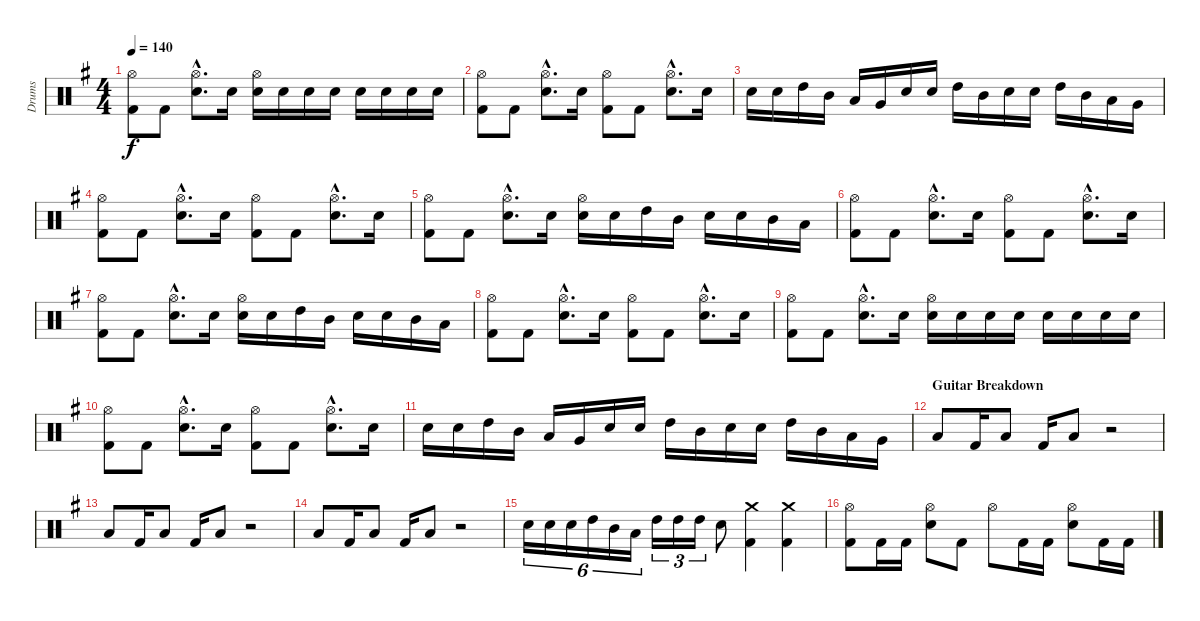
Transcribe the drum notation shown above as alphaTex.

\track ("Drums" "Drums") {instrument percussion}
\staff {score}
\articulation defaults
\ts (4 4)
\tempo 140
\clef neutral
\ks g
("Hi-Hat (open)" "Kick (hit) 2").8{dy f} "Kick (hit) 2".8 ("Hi-Hat (open)"{hac} "Electric Snare (hit)"{hac}).8{d} "Electric Snare (hit)".16 ("Hi-Hat (open)" "Electric Snare (hit)").16 "Electric Snare (hit)".16 "Electric Snare (hit)".16 "Electric Snare (hit)".16 "Electric Snare (hit)".16 "Electric Snare (hit)".16 "Electric Snare (hit)".16 "Electric Snare (hit)".16 |
("Hi-Hat (open)" "Kick (hit) 2").8 "Kick (hit) 2".8 ("Hi-Hat (open)"{hac} "Electric Snare (hit)"{hac}).8{d} "Electric Snare (hit)".16 ("Hi-Hat (open)" "Kick (hit) 2").8 "Kick (hit) 2".8 ("Hi-Hat (open)"{hac} "Electric Snare (hit)"{hac}).8{d} "Electric Snare (hit)".16 |
"Electric Snare (hit)".16 "Electric Snare (hit)".16 "High Tom (hit)".16 "Mid Tom (hit)".16 "Low Tom (hit)".16 "Very Low Tom (hit)".16 "Electric Snare (hit)".16 "Electric Snare (hit)".16 "High Tom (hit)".16 "Mid Tom (hit)".16 "Electric Snare (hit)".16 "Electric Snare (hit)".16 "High Tom (hit)".16 "Mid Tom (hit)".16 "Low Tom (hit)".16 "Very Low Tom (hit)".16 |
("Hi-Hat (open)" "Kick (hit) 2").8 "Kick (hit) 2".8 ("Hi-Hat (open)"{hac} "Electric Snare (hit)"{hac}).8{d} "Electric Snare (hit)".16 ("Hi-Hat (open)" "Kick (hit) 2").8 "Kick (hit) 2".8 ("Hi-Hat (open)"{hac} "Electric Snare (hit)"{hac}).8{d} "Electric Snare (hit)".16 |
("Hi-Hat (open)" "Kick (hit) 2").8 "Kick (hit) 2".8 ("Hi-Hat (open)"{hac} "Electric Snare (hit)"{hac}).8{d} "Electric Snare (hit)".16 ("Hi-Hat (open)" "Electric Snare (hit)").16 "Electric Snare (hit)".16 "High Tom (hit)".16 "Mid Tom (hit)".16 "Electric Snare (hit)".16 "Electric Snare (hit)".16 "Mid Tom (hit)".16 "Low Tom (hit)".16 |
("Hi-Hat (open)" "Kick (hit) 2").8 "Kick (hit) 2".8 ("Hi-Hat (open)"{hac} "Electric Snare (hit)"{hac}).8{d} "Electric Snare (hit)".16 ("Hi-Hat (open)" "Kick (hit) 2").8 "Kick (hit) 2".8 ("Hi-Hat (open)"{hac} "Electric Snare (hit)"{hac}).8{d} "Electric Snare (hit)".16 |
("Hi-Hat (open)" "Kick (hit) 2").8 "Kick (hit) 2".8 ("Hi-Hat (open)"{hac} "Electric Snare (hit)"{hac}).8{d} "Electric Snare (hit)".16 ("Hi-Hat (open)" "Electric Snare (hit)").16 "Electric Snare (hit)".16 "High Tom (hit)".16 "Mid Tom (hit)".16 "Electric Snare (hit)".16 "Electric Snare (hit)".16 "Mid Tom (hit)".16 "Low Tom (hit)".16 |
("Hi-Hat (open)" "Kick (hit) 2").8 "Kick (hit) 2".8 ("Hi-Hat (open)"{hac} "Electric Snare (hit)"{hac}).8{d} "Electric Snare (hit)".16 ("Hi-Hat (open)" "Kick (hit) 2").8 "Kick (hit) 2".8 ("Hi-Hat (open)"{hac} "Electric Snare (hit)"{hac}).8{d} "Electric Snare (hit)".16 |
("Hi-Hat (open)" "Kick (hit) 2").8 "Kick (hit) 2".8 ("Hi-Hat (open)"{hac} "Electric Snare (hit)"{hac}).8{d} "Electric Snare (hit)".16 ("Hi-Hat (open)" "Electric Snare (hit)").16 "Electric Snare (hit)".16 "Electric Snare (hit)".16 "Electric Snare (hit)".16 "Electric Snare (hit)".16 "Electric Snare (hit)".16 "Electric Snare (hit)".16 "Electric Snare (hit)".16 |
("Hi-Hat (open)" "Kick (hit) 2").8 "Kick (hit) 2".8 ("Hi-Hat (open)"{hac} "Electric Snare (hit)"{hac}).8{d} "Electric Snare (hit)".16 ("Hi-Hat (open)" "Kick (hit) 2").8 "Kick (hit) 2".8 ("Hi-Hat (open)"{hac} "Electric Snare (hit)"{hac}).8{d} "Electric Snare (hit)".16 |
"Electric Snare (hit)".16 "Electric Snare (hit)".16 "High Tom (hit)".16 "Mid Tom (hit)".16 "Low Tom (hit)".16 "Very Low Tom (hit)".16 "Electric Snare (hit)".16 "Electric Snare (hit)".16 "High Tom (hit)".16 "Mid Tom (hit)".16 "Electric Snare (hit)".16 "Electric Snare (hit)".16 "High Tom (hit)".16 "Mid Tom (hit)".16 "Low Tom (hit)".16 "Very Low Tom (hit)".16 |
\section ("" "Guitar Breakdown")
"Low Tom (hit)".8 "Kick (hit) 2".16 "Low Tom (hit)".8 "Kick (hit) 2".16 "Low Tom (hit)".8 r.2 |
"Low Tom (hit)".8 "Kick (hit) 2".16 "Low Tom (hit)".8 "Kick (hit) 2".16 "Low Tom (hit)".8 r.2 |
"Low Tom (hit)".8 "Kick (hit) 2".16 "Low Tom (hit)".8 "Kick (hit) 2".16 "Low Tom (hit)".8 r.2 |
"Electric Snare (hit)".16{tu (6 4)} "Electric Snare (hit)".16{tu (6 4)} "Electric Snare (hit)".16{tu (6 4)} "High Tom (hit)".16{tu (6 4)} "Mid Tom (hit)".16{tu (6 4)} "Low Tom (hit)".16{tu (6 4)} "High Tom (hit)".16{tu (3 2)} "High Tom (hit)".16{tu (3 2)} "High Tom (hit)".16{tu (3 2)} "Electric Snare (hit)".8 ("Crash medium (hit)" "Kick (hit) 2").4 ("Crash medium (hit)" "Kick (hit) 2").4 |
("Hi-Hat (open)" "Kick (hit) 2").8 "Kick (hit) 2".16 "Kick (hit) 2".16 ("Hi-Hat (open)" "Electric Snare (hit)").8 "Kick (hit) 2".8 "Hi-Hat (open)".8 "Kick (hit) 2".16 "Kick (hit) 2".16 ("Hi-Hat (open)" "Electric Snare (hit)").8 "Kick (hit) 2".16 "Kick (hit) 2".16
